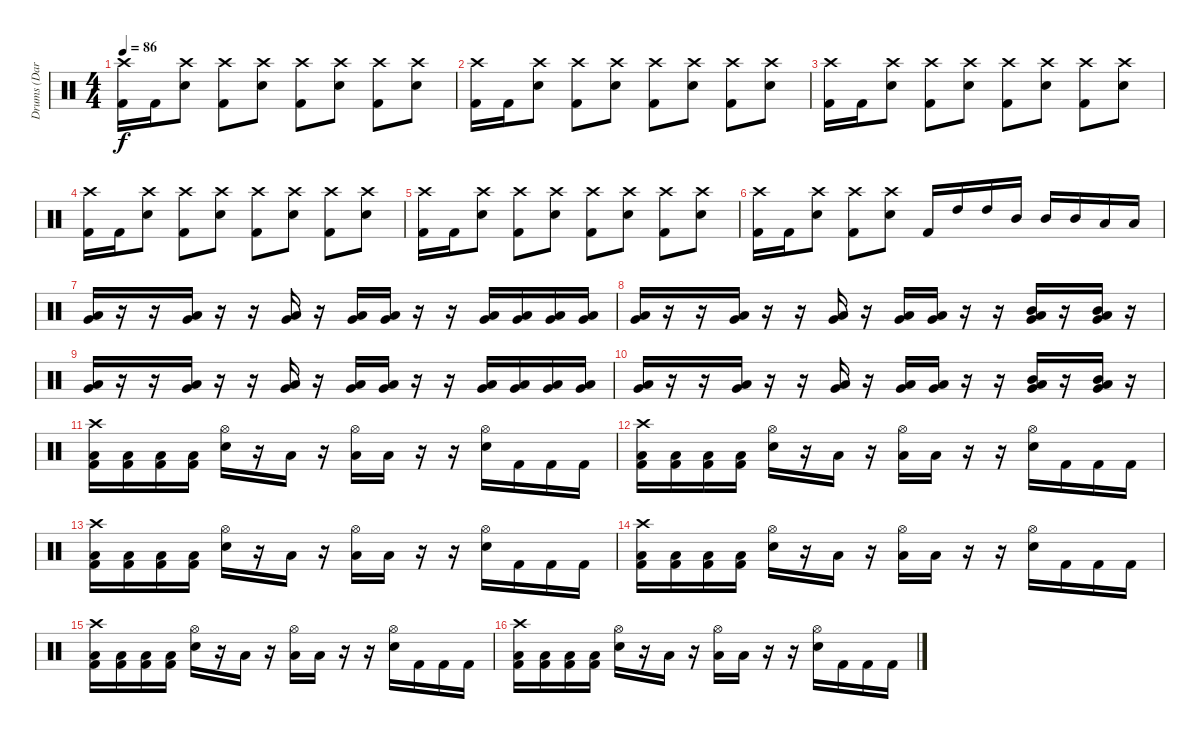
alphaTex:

\track ("Drums (Daray) " "Drums (Dar") {instrument percussion}
\staff {score}
\articulation defaults
\ts (4 4)
\tempo 86
\clef neutral
\ks c
("Crash high (hit)" "Kick (hit) 2").16{dy f} "Kick (hit) 2".16 ("Crash high (hit)" "Electric Snare (hit)").8 ("Crash high (hit)" "Kick (hit) 2").8 ("Crash high (hit)" "Electric Snare (hit)").8 ("Crash high (hit)" "Kick (hit) 2").8 ("Crash high (hit)" "Electric Snare (hit)").8 ("Crash high (hit)" "Kick (hit) 2").8 ("Crash high (hit)" "Electric Snare (hit)").8 |
("Crash high (hit)" "Kick (hit) 2").16 "Kick (hit) 2".16 ("Crash high (hit)" "Electric Snare (hit)").8 ("Crash high (hit)" "Kick (hit) 2").8 ("Crash high (hit)" "Electric Snare (hit)").8 ("Crash high (hit)" "Kick (hit) 2").8 ("Crash high (hit)" "Electric Snare (hit)").8 ("Crash high (hit)" "Kick (hit) 2").8 ("Crash high (hit)" "Electric Snare (hit)").8 |
("Crash high (hit)" "Kick (hit) 2").16 "Kick (hit) 2".16 ("Crash high (hit)" "Electric Snare (hit)").8 ("Crash high (hit)" "Kick (hit) 2").8 ("Crash high (hit)" "Electric Snare (hit)").8 ("Crash high (hit)" "Kick (hit) 2").8 ("Crash high (hit)" "Electric Snare (hit)").8 ("Crash high (hit)" "Kick (hit) 2").8 ("Crash high (hit)" "Electric Snare (hit)").8 |
("Crash high (hit)" "Kick (hit) 2").16 "Kick (hit) 2".16 ("Crash high (hit)" "Electric Snare (hit)").8 ("Crash high (hit)" "Kick (hit) 2").8 ("Crash high (hit)" "Electric Snare (hit)").8 ("Crash high (hit)" "Kick (hit) 2").8 ("Crash high (hit)" "Electric Snare (hit)").8 ("Crash high (hit)" "Kick (hit) 2").8 ("Crash high (hit)" "Electric Snare (hit)").8 |
("Crash high (hit)" "Kick (hit) 2").16 "Kick (hit) 2".16 ("Crash high (hit)" "Electric Snare (hit)").8 ("Crash high (hit)" "Kick (hit) 2").8 ("Crash high (hit)" "Electric Snare (hit)").8 ("Crash high (hit)" "Kick (hit) 2").8 ("Crash high (hit)" "Electric Snare (hit)").8 ("Crash high (hit)" "Kick (hit) 2").8 ("Crash high (hit)" "Electric Snare (hit)").8 |
("Crash high (hit)" "Kick (hit) 2").16 "Kick (hit) 2".16 ("Crash high (hit)" "Electric Snare (hit)").8 ("Crash high (hit)" "Kick (hit) 2").8 ("Crash high (hit)" "Electric Snare (hit)").8 "Kick (hit) 2".16 "High Tom (hit)".16 "High Tom (hit)".16 "Mid Tom (hit)".16 "Mid Tom (hit)".16 "Mid Tom (hit)".16 "Low Tom (hit)".16 "Low Tom (hit)".16 |
("Very Low Tom (hit)" "Low Tom (hit)").16 r.16 r.16 ("Very Low Tom (hit)" "Low Tom (hit)").16 r.16 r.16 ("Very Low Tom (hit)" "Low Tom (hit)").16 r.16 ("Very Low Tom (hit)" "Low Tom (hit)").16 ("Very Low Tom (hit)" "Low Tom (hit)").16 r.16 r.16 ("Low Tom (hit)" "Very Low Tom (hit)").16 ("Low Tom (hit)" "Very Low Tom (hit)").16 ("Low Tom (hit)" "Very Low Tom (hit)").16 ("Low Tom (hit)" "Very Low Tom (hit)").16 |
("Very Low Tom (hit)" "Low Tom (hit)").16 r.16 r.16 ("Very Low Tom (hit)" "Low Tom (hit)").16 r.16 r.16 ("Very Low Tom (hit)" "Low Tom (hit)").16 r.16 ("Very Low Tom (hit)" "Low Tom (hit)").16 ("Very Low Tom (hit)" "Low Tom (hit)").16 r.16 r.16 ("Mid Tom (hit)" "Low Tom (hit)" "Very Low Tom (hit)").16 r.16 ("Mid Tom (hit)" "Low Tom (hit)" "Very Low Tom (hit)").16 r.16 |
("Very Low Tom (hit)" "Low Tom (hit)").16 r.16 r.16 ("Very Low Tom (hit)" "Low Tom (hit)").16 r.16 r.16 ("Very Low Tom (hit)" "Low Tom (hit)").16 r.16 ("Very Low Tom (hit)" "Low Tom (hit)").16 ("Very Low Tom (hit)" "Low Tom (hit)").16 r.16 r.16 ("Low Tom (hit)" "Very Low Tom (hit)").16 ("Low Tom (hit)" "Very Low Tom (hit)").16 ("Low Tom (hit)" "Very Low Tom (hit)").16 ("Low Tom (hit)" "Very Low Tom (hit)").16 |
("Very Low Tom (hit)" "Low Tom (hit)").16 r.16 r.16 ("Very Low Tom (hit)" "Low Tom (hit)").16 r.16 r.16 ("Very Low Tom (hit)" "Low Tom (hit)").16 r.16 ("Very Low Tom (hit)" "Low Tom (hit)").16 ("Very Low Tom (hit)" "Low Tom (hit)").16 r.16 r.16 ("Mid Tom (hit)" "Low Tom (hit)" "Very Low Tom (hit)").16 r.16 ("Mid Tom (hit)" "Low Tom (hit)" "Very Low Tom (hit)").16 r.16 |
("Crash high (hit)" "Low Tom (hit)" "Kick (hit) 2").16 ("Low Tom (hit)" "Kick (hit) 2").16 ("Low Tom (hit)" "Kick (hit) 2").16 ("Low Tom (hit)" "Kick (hit) 2").16 ("Hi-Hat (open)" "Electric Snare (hit)").16 r.16 "Low Tom (hit)".16 r.16 ("Hi-Hat (open)" "Low Tom (hit)").16 "Low Tom (hit)".16 r.16 r.16 ("Hi-Hat (open)" "Electric Snare (hit)").16 "Kick (hit) 2".16 "Kick (hit) 2".16 "Kick (hit) 2".16 |
("Crash high (hit)" "Low Tom (hit)" "Kick (hit) 2").16 ("Low Tom (hit)" "Kick (hit) 2").16 ("Low Tom (hit)" "Kick (hit) 2").16 ("Low Tom (hit)" "Kick (hit) 2").16 ("Hi-Hat (open)" "Electric Snare (hit)").16 r.16 "Low Tom (hit)".16 r.16 ("Hi-Hat (open)" "Low Tom (hit)").16 "Low Tom (hit)".16 r.16 r.16 ("Hi-Hat (open)" "Electric Snare (hit)").16 "Kick (hit) 2".16 "Kick (hit) 2".16 "Kick (hit) 2".16 |
("Crash high (hit)" "Low Tom (hit)" "Kick (hit) 2").16 ("Low Tom (hit)" "Kick (hit) 2").16 ("Low Tom (hit)" "Kick (hit) 2").16 ("Low Tom (hit)" "Kick (hit) 2").16 ("Hi-Hat (open)" "Electric Snare (hit)").16 r.16 "Low Tom (hit)".16 r.16 ("Hi-Hat (open)" "Low Tom (hit)").16 "Low Tom (hit)".16 r.16 r.16 ("Hi-Hat (open)" "Electric Snare (hit)").16 "Kick (hit) 2".16 "Kick (hit) 2".16 "Kick (hit) 2".16 |
("Crash high (hit)" "Low Tom (hit)" "Kick (hit) 2").16 ("Low Tom (hit)" "Kick (hit) 2").16 ("Low Tom (hit)" "Kick (hit) 2").16 ("Low Tom (hit)" "Kick (hit) 2").16 ("Hi-Hat (open)" "Electric Snare (hit)").16 r.16 "Low Tom (hit)".16 r.16 ("Hi-Hat (open)" "Low Tom (hit)").16 "Low Tom (hit)".16 r.16 r.16 ("Hi-Hat (open)" "Electric Snare (hit)").16 "Kick (hit) 2".16 "Kick (hit) 2".16 "Kick (hit) 2".16 |
("Crash high (hit)" "Low Tom (hit)" "Kick (hit) 2").16 ("Low Tom (hit)" "Kick (hit) 2").16 ("Low Tom (hit)" "Kick (hit) 2").16 ("Low Tom (hit)" "Kick (hit) 2").16 ("Hi-Hat (open)" "Electric Snare (hit)").16 r.16 "Low Tom (hit)".16 r.16 ("Hi-Hat (open)" "Low Tom (hit)").16 "Low Tom (hit)".16 r.16 r.16 ("Hi-Hat (open)" "Electric Snare (hit)").16 "Kick (hit) 2".16 "Kick (hit) 2".16 "Kick (hit) 2".16 |
("Crash high (hit)" "Low Tom (hit)" "Kick (hit) 2").16 ("Low Tom (hit)" "Kick (hit) 2").16 ("Low Tom (hit)" "Kick (hit) 2").16 ("Low Tom (hit)" "Kick (hit) 2").16 ("Hi-Hat (open)" "Electric Snare (hit)").16 r.16 "Low Tom (hit)".16 r.16 ("Hi-Hat (open)" "Low Tom (hit)").16 "Low Tom (hit)".16 r.16 r.16 ("Hi-Hat (open)" "Electric Snare (hit)").16 "Kick (hit) 2".16 "Kick (hit) 2".16 "Kick (hit) 2".16
